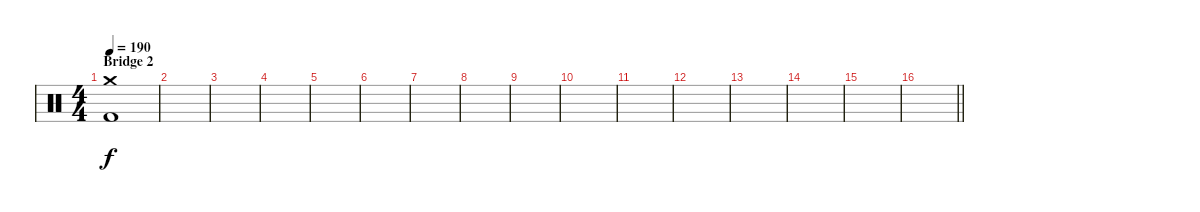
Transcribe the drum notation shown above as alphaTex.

\track "" {instrument percussion}
\staff {score}
\articulation defaults
\ts (4 4)
\section ("" "Bridge 2")
\tempo 190
\clef neutral
\ks c
("Crash medium (hit)" "Kick (hit) 2").1{dy f} |
|
|
|
|
|
|
|
|
|
|
|
|
|
|
\barLineRight lightlight
